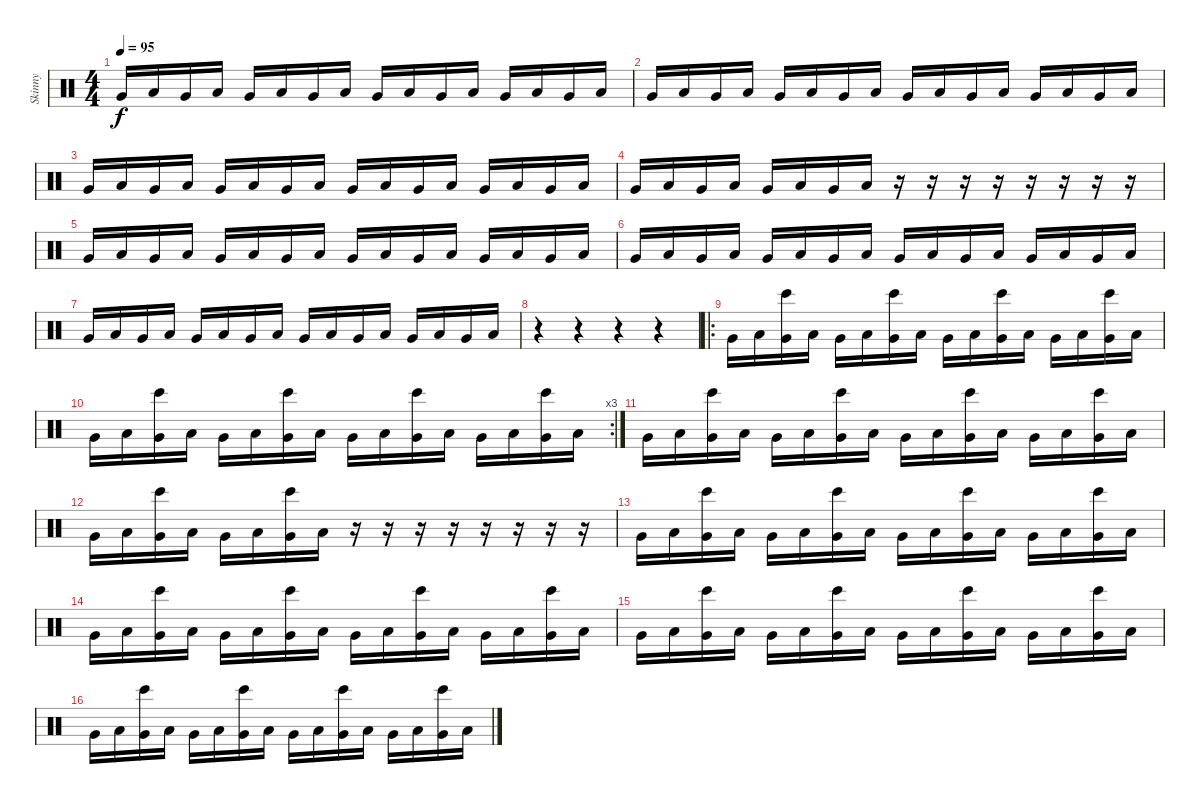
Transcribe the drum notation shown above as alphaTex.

\track ("Skinny" "Skinny") {instrument percussion}
\staff {score}
\articulation defaults
\ts (4 4)
\tempo 95
\clef neutral
\ks c "Very Low Tom (hit)".16{dy f} "Low Tom (hit)".16 "Very Low Tom (hit)".16 "Low Tom (hit)".16 "Very Low Tom (hit)".16 "Low Tom (hit)".16 "Very Low Tom (hit)".16 "Low Tom (hit)".16 "Very Low Tom (hit)".16 "Low Tom (hit)".16 "Very Low Tom (hit)".16 "Low Tom (hit)".16 "Very Low Tom (hit)".16 "Low Tom (hit)".16 "Very Low Tom (hit)".16 "Low Tom (hit)".16
|
"Very Low Tom (hit)".16 "Low Tom (hit)".16 "Very Low Tom (hit)".16 "Low Tom (hit)".16 "Very Low Tom (hit)".16 "Low Tom (hit)".16 "Very Low Tom (hit)".16 "Low Tom (hit)".16 "Very Low Tom (hit)".16 "Low Tom (hit)".16 "Very Low Tom (hit)".16 "Low Tom (hit)".16 "Very Low Tom (hit)".16 "Low Tom (hit)".16 "Very Low Tom (hit)".16 "Low Tom (hit)".16 |
"Very Low Tom (hit)".16 "Low Tom (hit)".16 "Very Low Tom (hit)".16 "Low Tom (hit)".16 "Very Low Tom (hit)".16 "Low Tom (hit)".16 "Very Low Tom (hit)".16 "Low Tom (hit)".16 "Very Low Tom (hit)".16 "Low Tom (hit)".16 "Very Low Tom (hit)".16 "Low Tom (hit)".16 "Very Low Tom (hit)".16 "Low Tom (hit)".16 "Very Low Tom (hit)".16 "Low Tom (hit)".16 |
"Very Low Tom (hit)".16 "Low Tom (hit)".16 "Very Low Tom (hit)".16 "Low Tom (hit)".16 "Very Low Tom (hit)".16 "Low Tom (hit)".16 "Very Low Tom (hit)".16 "Low Tom (hit)".16 r.16 r.16 r.16 r.16 r.16 r.16 r.16 r.16 |
"Very Low Tom (hit)".16 "Low Tom (hit)".16 "Very Low Tom (hit)".16 "Low Tom (hit)".16 "Very Low Tom (hit)".16 "Low Tom (hit)".16 "Very Low Tom (hit)".16 "Low Tom (hit)".16 "Very Low Tom (hit)".16 "Low Tom (hit)".16 "Very Low Tom (hit)".16 "Low Tom (hit)".16 "Very Low Tom (hit)".16 "Low Tom (hit)".16 "Very Low Tom (hit)".16 "Low Tom (hit)".16 |
"Very Low Tom (hit)".16 "Low Tom (hit)".16 "Very Low Tom (hit)".16 "Low Tom (hit)".16 "Very Low Tom (hit)".16 "Low Tom (hit)".16 "Very Low Tom (hit)".16 "Low Tom (hit)".16 "Very Low Tom (hit)".16 "Low Tom (hit)".16 "Very Low Tom (hit)".16 "Low Tom (hit)".16 "Very Low Tom (hit)".16 "Low Tom (hit)".16 "Very Low Tom (hit)".16 "Low Tom (hit)".16 |
"Very Low Tom (hit)".16 "Low Tom (hit)".16 "Very Low Tom (hit)".16 "Low Tom (hit)".16 "Very Low Tom (hit)".16 "Low Tom (hit)".16 "Very Low Tom (hit)".16 "Low Tom (hit)".16 "Very Low Tom (hit)".16 "Low Tom (hit)".16 "Very Low Tom (hit)".16 "Low Tom (hit)".16 "Very Low Tom (hit)".16 "Low Tom (hit)".16 "Very Low Tom (hit)".16 "Low Tom (hit)".16 |
r.4 r.4 r.4 r.4 |
\ro "Very Low Tom (hit)".16 "Low Tom (hit)".16
("Very Low Tom (hit)" "Bongo High (hit)").16 "Low Tom (hit)".16 "Very Low Tom (hit)".16 "Low Tom (hit)".16 ("Very Low Tom (hit)" "Bongo High (hit)").16 "Low Tom (hit)".16 "Very Low Tom (hit)".16 "Low Tom (hit)".16 ("Very Low Tom (hit)" "Bongo High (hit)").16 "Low Tom (hit)".16 "Very Low Tom (hit)".16 "Low Tom (hit)".16 ("Very Low Tom (hit)" "Bongo High (hit)").16 "Low Tom (hit)".16 |
\rc 3 "Very Low Tom (hit)".16 "Low Tom (hit)".16
("Very Low Tom (hit)" "Bongo High (hit)").16 "Low Tom (hit)".16 "Very Low Tom (hit)".16 "Low Tom (hit)".16 ("Very Low Tom (hit)" "Bongo High (hit)").16 "Low Tom (hit)".16 "Very Low Tom (hit)".16 "Low Tom (hit)".16 ("Very Low Tom (hit)" "Bongo High (hit)").16 "Low Tom (hit)".16 "Very Low Tom (hit)".16 "Low Tom (hit)".16 ("Very Low Tom (hit)" "Bongo High (hit)").16 "Low Tom (hit)".16 |
"Very Low Tom (hit)".16 "Low Tom (hit)".16 ("Very Low Tom (hit)" "Bongo High (hit)").16 "Low Tom (hit)".16 "Very Low Tom (hit)".16 "Low Tom (hit)".16 ("Very Low Tom (hit)" "Bongo High (hit)").16 "Low Tom (hit)".16 "Very Low Tom (hit)".16 "Low Tom (hit)".16 ("Very Low Tom (hit)" "Bongo High (hit)").16 "Low Tom (hit)".16 "Very Low Tom (hit)".16 "Low Tom (hit)".16 ("Very Low Tom (hit)" "Bongo High (hit)").16 "Low Tom (hit)".16 |
"Very Low Tom (hit)".16 "Low Tom (hit)".16 ("Very Low Tom (hit)" "Bongo High (hit)").16 "Low Tom (hit)".16 "Very Low Tom (hit)".16 "Low Tom (hit)".16 ("Very Low Tom (hit)" "Bongo High (hit)").16 "Low Tom (hit)".16 r.16 r.16 r.16 r.16 r.16 r.16 r.16 r.16 |
"Very Low Tom (hit)".16 "Low Tom (hit)".16 ("Very Low Tom (hit)" "Bongo High (hit)").16 "Low Tom (hit)".16 "Very Low Tom (hit)".16 "Low Tom (hit)".16 ("Very Low Tom (hit)" "Bongo High (hit)").16 "Low Tom (hit)".16 "Very Low Tom (hit)".16 "Low Tom (hit)".16 ("Very Low Tom (hit)" "Bongo High (hit)").16 "Low Tom (hit)".16 "Very Low Tom (hit)".16 "Low Tom (hit)".16 ("Very Low Tom (hit)" "Bongo High (hit)").16 "Low Tom (hit)".16 |
"Very Low Tom (hit)".16 "Low Tom (hit)".16 ("Very Low Tom (hit)" "Bongo High (hit)").16 "Low Tom (hit)".16 "Very Low Tom (hit)".16 "Low Tom (hit)".16 ("Very Low Tom (hit)" "Bongo High (hit)").16 "Low Tom (hit)".16 "Very Low Tom (hit)".16 "Low Tom (hit)".16 ("Very Low Tom (hit)" "Bongo High (hit)").16 "Low Tom (hit)".16 "Very Low Tom (hit)".16 "Low Tom (hit)".16 ("Very Low Tom (hit)" "Bongo High (hit)").16 "Low Tom (hit)".16 |
"Very Low Tom (hit)".16 "Low Tom (hit)".16 ("Very Low Tom (hit)" "Bongo High (hit)").16 "Low Tom (hit)".16 "Very Low Tom (hit)".16 "Low Tom (hit)".16 ("Very Low Tom (hit)" "Bongo High (hit)").16 "Low Tom (hit)".16 "Very Low Tom (hit)".16 "Low Tom (hit)".16 ("Very Low Tom (hit)" "Bongo High (hit)").16 "Low Tom (hit)".16 "Very Low Tom (hit)".16 "Low Tom (hit)".16 ("Very Low Tom (hit)" "Bongo High (hit)").16 "Low Tom (hit)".16 |
"Very Low Tom (hit)".16 "Low Tom (hit)".16 ("Very Low Tom (hit)" "Bongo High (hit)").16 "Low Tom (hit)".16 "Very Low Tom (hit)".16 "Low Tom (hit)".16 ("Very Low Tom (hit)" "Bongo High (hit)").16 "Low Tom (hit)".16 "Very Low Tom (hit)".16 "Low Tom (hit)".16 ("Very Low Tom (hit)" "Bongo High (hit)").16 "Low Tom (hit)".16 "Very Low Tom (hit)".16 "Low Tom (hit)".16 ("Very Low Tom (hit)" "Bongo High (hit)").16 "Low Tom (hit)".16
